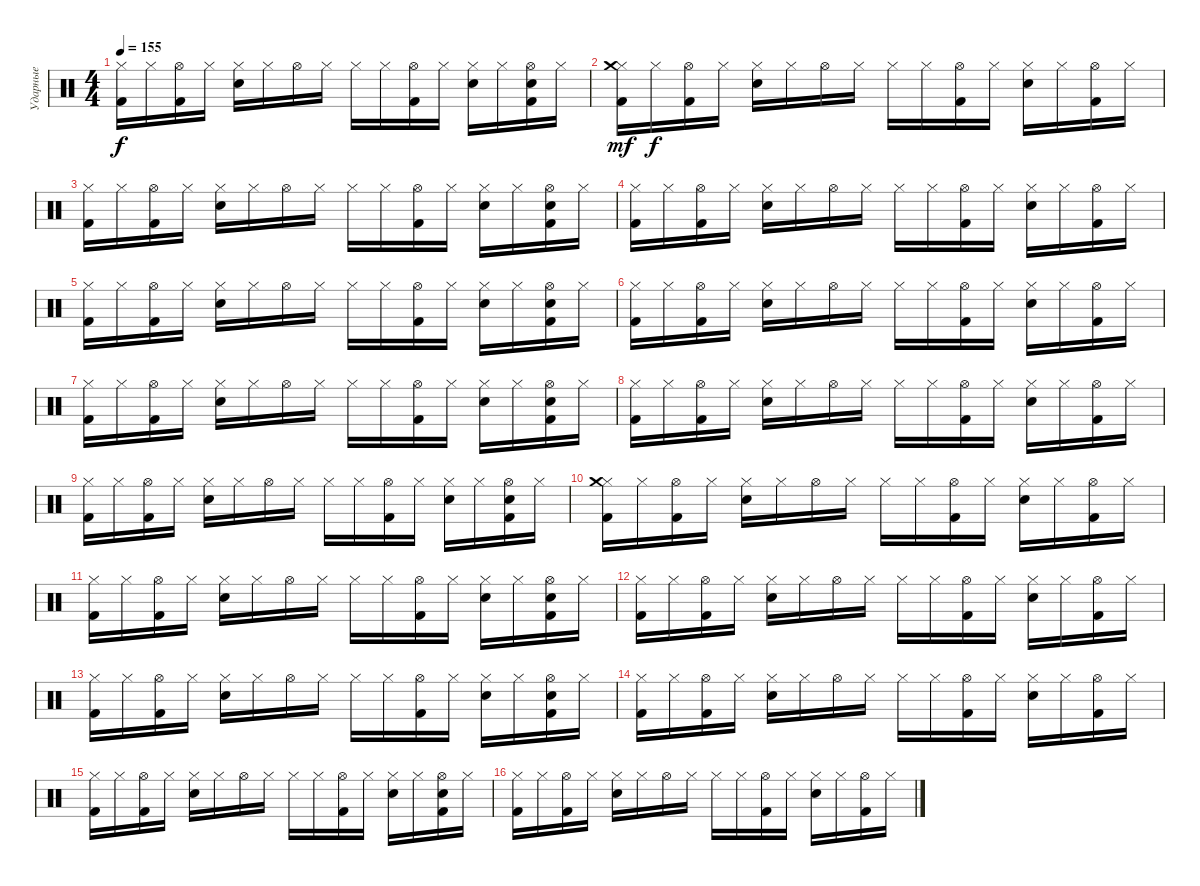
\track ("Ударные" "Ударные") {instrument percussion}
\staff {score}
\articulation defaults
\ts (4 4)
\tempo 155
\clef neutral
\ks c
("Hi-Hat (closed)" "Kick (hit) 2").16{dy f} "Hi-Hat (closed)".16 ("Hi-Hat (open)" "Kick (hit) 2").16 "Hi-Hat (closed)".16 ("Hi-Hat (closed)" "Electric Snare (hit)").16 "Hi-Hat (closed)".16 "Hi-Hat (open)".16 "Hi-Hat (closed)".16 "Hi-Hat (closed)".16 "Hi-Hat (closed)".16 ("Hi-Hat (open)" "Kick (hit) 2").16 "Hi-Hat (closed)".16 ("Hi-Hat (closed)" "Electric Snare (hit)").16 "Hi-Hat (closed)".16 ("Hi-Hat (open)" "Kick (hit) 2" "Electric Snare (hit)").16 "Hi-Hat (closed)".16 |
("Hi-Hat (closed)" "Kick (hit) 2" "Crash medium (hit)").16{dy mf} "Hi-Hat (closed)".16{dy f} ("Hi-Hat (open)" "Kick (hit) 2").16 "Hi-Hat (closed)".16 ("Hi-Hat (closed)" "Electric Snare (hit)").16 "Hi-Hat (closed)".16 "Hi-Hat (open)".16 "Hi-Hat (closed)".16 "Hi-Hat (closed)".16 "Hi-Hat (closed)".16 ("Hi-Hat (open)" "Kick (hit) 2").16 "Hi-Hat (closed)".16 ("Hi-Hat (closed)" "Electric Snare (hit)").16 "Hi-Hat (closed)".16 ("Hi-Hat (open)" "Kick (hit) 2").16 "Hi-Hat (closed)".16 |
("Hi-Hat (closed)" "Kick (hit) 2").16 "Hi-Hat (closed)".16 ("Hi-Hat (open)" "Kick (hit) 2").16 "Hi-Hat (closed)".16 ("Hi-Hat (closed)" "Electric Snare (hit)").16 "Hi-Hat (closed)".16 "Hi-Hat (open)".16 "Hi-Hat (closed)".16 "Hi-Hat (closed)".16 "Hi-Hat (closed)".16 ("Hi-Hat (open)" "Kick (hit) 2").16 "Hi-Hat (closed)".16 ("Hi-Hat (closed)" "Electric Snare (hit)").16 "Hi-Hat (closed)".16 ("Hi-Hat (open)" "Kick (hit) 2" "Electric Snare (hit)").16 "Hi-Hat (closed)".16 |
("Hi-Hat (closed)" "Kick (hit) 2").16 "Hi-Hat (closed)".16 ("Hi-Hat (open)" "Kick (hit) 2").16 "Hi-Hat (closed)".16 ("Hi-Hat (closed)" "Electric Snare (hit)").16 "Hi-Hat (closed)".16 "Hi-Hat (open)".16 "Hi-Hat (closed)".16 "Hi-Hat (closed)".16 "Hi-Hat (closed)".16 ("Hi-Hat (open)" "Kick (hit) 2").16 "Hi-Hat (closed)".16 ("Hi-Hat (closed)" "Electric Snare (hit)").16 "Hi-Hat (closed)".16 ("Hi-Hat (open)" "Kick (hit) 2").16 "Hi-Hat (closed)".16 |
("Hi-Hat (closed)" "Kick (hit) 2").16 "Hi-Hat (closed)".16 ("Hi-Hat (open)" "Kick (hit) 2").16 "Hi-Hat (closed)".16 ("Hi-Hat (closed)" "Electric Snare (hit)").16 "Hi-Hat (closed)".16 "Hi-Hat (open)".16 "Hi-Hat (closed)".16 "Hi-Hat (closed)".16 "Hi-Hat (closed)".16 ("Hi-Hat (open)" "Kick (hit) 2").16 "Hi-Hat (closed)".16 ("Hi-Hat (closed)" "Electric Snare (hit)").16 "Hi-Hat (closed)".16 ("Hi-Hat (open)" "Kick (hit) 2" "Electric Snare (hit)").16 "Hi-Hat (closed)".16 |
("Hi-Hat (closed)" "Kick (hit) 2").16 "Hi-Hat (closed)".16 ("Hi-Hat (open)" "Kick (hit) 2").16 "Hi-Hat (closed)".16 ("Hi-Hat (closed)" "Electric Snare (hit)").16 "Hi-Hat (closed)".16 "Hi-Hat (open)".16 "Hi-Hat (closed)".16 "Hi-Hat (closed)".16 "Hi-Hat (closed)".16 ("Hi-Hat (open)" "Kick (hit) 2").16 "Hi-Hat (closed)".16 ("Hi-Hat (closed)" "Electric Snare (hit)").16 "Hi-Hat (closed)".16 ("Hi-Hat (open)" "Kick (hit) 2").16 "Hi-Hat (closed)".16 |
("Hi-Hat (closed)" "Kick (hit) 2").16 "Hi-Hat (closed)".16 ("Hi-Hat (open)" "Kick (hit) 2").16 "Hi-Hat (closed)".16 ("Hi-Hat (closed)" "Electric Snare (hit)").16 "Hi-Hat (closed)".16 "Hi-Hat (open)".16 "Hi-Hat (closed)".16 "Hi-Hat (closed)".16 "Hi-Hat (closed)".16 ("Hi-Hat (open)" "Kick (hit) 2").16 "Hi-Hat (closed)".16 ("Hi-Hat (closed)" "Electric Snare (hit)").16 "Hi-Hat (closed)".16 ("Hi-Hat (open)" "Kick (hit) 2" "Electric Snare (hit)").16 "Hi-Hat (closed)".16 |
("Hi-Hat (closed)" "Kick (hit) 2").16 "Hi-Hat (closed)".16 ("Hi-Hat (open)" "Kick (hit) 2").16 "Hi-Hat (closed)".16 ("Hi-Hat (closed)" "Electric Snare (hit)").16 "Hi-Hat (closed)".16 "Hi-Hat (open)".16 "Hi-Hat (closed)".16 "Hi-Hat (closed)".16 "Hi-Hat (closed)".16 ("Hi-Hat (open)" "Kick (hit) 2").16 "Hi-Hat (closed)".16 ("Hi-Hat (closed)" "Electric Snare (hit)").16 "Hi-Hat (closed)".16 ("Hi-Hat (open)" "Kick (hit) 2").16 "Hi-Hat (closed)".16 |
("Hi-Hat (closed)" "Kick (hit) 2").16 "Hi-Hat (closed)".16 ("Hi-Hat (open)" "Kick (hit) 2").16 "Hi-Hat (closed)".16 ("Hi-Hat (closed)" "Electric Snare (hit)").16 "Hi-Hat (closed)".16 "Hi-Hat (open)".16 "Hi-Hat (closed)".16 "Hi-Hat (closed)".16 "Hi-Hat (closed)".16 ("Hi-Hat (open)" "Kick (hit) 2").16 "Hi-Hat (closed)".16 ("Hi-Hat (closed)" "Electric Snare (hit)").16 "Hi-Hat (closed)".16 ("Hi-Hat (open)" "Kick (hit) 2" "Electric Snare (hit)").16 "Hi-Hat (closed)".16 |
("Hi-Hat (closed)" "Kick (hit) 2" "Crash medium (hit)").16 "Hi-Hat (closed)".16 ("Hi-Hat (open)" "Kick (hit) 2").16 "Hi-Hat (closed)".16 ("Hi-Hat (closed)" "Electric Snare (hit)").16 "Hi-Hat (closed)".16 "Hi-Hat (open)".16 "Hi-Hat (closed)".16 "Hi-Hat (closed)".16 "Hi-Hat (closed)".16 ("Hi-Hat (open)" "Kick (hit) 2").16 "Hi-Hat (closed)".16 ("Hi-Hat (closed)" "Electric Snare (hit)").16 "Hi-Hat (closed)".16 ("Hi-Hat (open)" "Kick (hit) 2").16 "Hi-Hat (closed)".16 |
("Hi-Hat (closed)" "Kick (hit) 2").16 "Hi-Hat (closed)".16 ("Hi-Hat (open)" "Kick (hit) 2").16 "Hi-Hat (closed)".16 ("Hi-Hat (closed)" "Electric Snare (hit)").16 "Hi-Hat (closed)".16 "Hi-Hat (open)".16 "Hi-Hat (closed)".16 "Hi-Hat (closed)".16 "Hi-Hat (closed)".16 ("Hi-Hat (open)" "Kick (hit) 2").16 "Hi-Hat (closed)".16 ("Hi-Hat (closed)" "Electric Snare (hit)").16 "Hi-Hat (closed)".16 ("Hi-Hat (open)" "Kick (hit) 2" "Electric Snare (hit)").16 "Hi-Hat (closed)".16 |
("Hi-Hat (closed)" "Kick (hit) 2").16 "Hi-Hat (closed)".16 ("Hi-Hat (open)" "Kick (hit) 2").16 "Hi-Hat (closed)".16 ("Hi-Hat (closed)" "Electric Snare (hit)").16 "Hi-Hat (closed)".16 "Hi-Hat (open)".16 "Hi-Hat (closed)".16 "Hi-Hat (closed)".16 "Hi-Hat (closed)".16 ("Hi-Hat (open)" "Kick (hit) 2").16 "Hi-Hat (closed)".16 ("Hi-Hat (closed)" "Electric Snare (hit)").16 "Hi-Hat (closed)".16 ("Hi-Hat (open)" "Kick (hit) 2").16 "Hi-Hat (closed)".16 |
("Hi-Hat (closed)" "Kick (hit) 2").16 "Hi-Hat (closed)".16 ("Hi-Hat (open)" "Kick (hit) 2").16 "Hi-Hat (closed)".16 ("Hi-Hat (closed)" "Electric Snare (hit)").16 "Hi-Hat (closed)".16 "Hi-Hat (open)".16 "Hi-Hat (closed)".16 "Hi-Hat (closed)".16 "Hi-Hat (closed)".16 ("Hi-Hat (open)" "Kick (hit) 2").16 "Hi-Hat (closed)".16 ("Hi-Hat (closed)" "Electric Snare (hit)").16 "Hi-Hat (closed)".16 ("Hi-Hat (open)" "Kick (hit) 2" "Electric Snare (hit)").16 "Hi-Hat (closed)".16 |
("Hi-Hat (closed)" "Kick (hit) 2").16 "Hi-Hat (closed)".16 ("Hi-Hat (open)" "Kick (hit) 2").16 "Hi-Hat (closed)".16 ("Hi-Hat (closed)" "Electric Snare (hit)").16 "Hi-Hat (closed)".16 "Hi-Hat (open)".16 "Hi-Hat (closed)".16 "Hi-Hat (closed)".16 "Hi-Hat (closed)".16 ("Hi-Hat (open)" "Kick (hit) 2").16 "Hi-Hat (closed)".16 ("Hi-Hat (closed)" "Electric Snare (hit)").16 "Hi-Hat (closed)".16 ("Hi-Hat (open)" "Kick (hit) 2").16 "Hi-Hat (closed)".16 |
("Hi-Hat (closed)" "Kick (hit) 2").16 "Hi-Hat (closed)".16 ("Hi-Hat (open)" "Kick (hit) 2").16 "Hi-Hat (closed)".16 ("Hi-Hat (closed)" "Electric Snare (hit)").16 "Hi-Hat (closed)".16 "Hi-Hat (open)".16 "Hi-Hat (closed)".16 "Hi-Hat (closed)".16 "Hi-Hat (closed)".16 ("Hi-Hat (open)" "Kick (hit) 2").16 "Hi-Hat (closed)".16 ("Hi-Hat (closed)" "Electric Snare (hit)").16 "Hi-Hat (closed)".16 ("Hi-Hat (open)" "Kick (hit) 2" "Electric Snare (hit)").16 "Hi-Hat (closed)".16 |
("Hi-Hat (closed)" "Kick (hit) 2").16 "Hi-Hat (closed)".16 ("Hi-Hat (open)" "Kick (hit) 2").16 "Hi-Hat (closed)".16 ("Hi-Hat (closed)" "Electric Snare (hit)").16 "Hi-Hat (closed)".16 "Hi-Hat (open)".16 "Hi-Hat (closed)".16 "Hi-Hat (closed)".16 "Hi-Hat (closed)".16 ("Hi-Hat (open)" "Kick (hit) 2").16 "Hi-Hat (closed)".16 ("Hi-Hat (closed)" "Electric Snare (hit)").16 "Hi-Hat (closed)".16 ("Hi-Hat (open)" "Kick (hit) 2").16 "Hi-Hat (closed)".16
